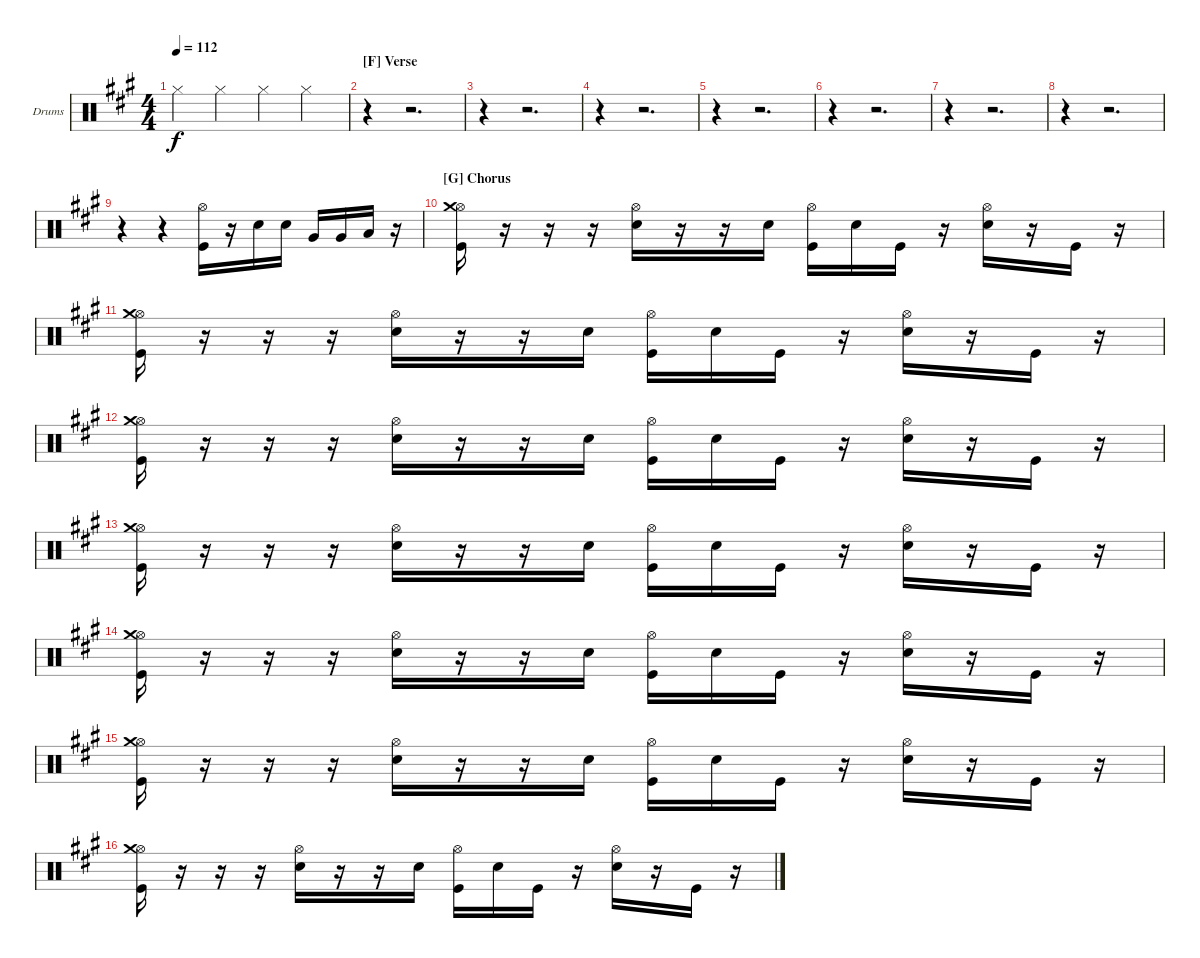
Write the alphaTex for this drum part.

\defaultSystemsLayout 4
\bracketExtendMode groupsimilarinstruments
\firstSystemTrackNameOrientation horizontal
\otherSystemsTrackNameOrientation horizontal
\track ("Drumkit" "Drums") {instrument percussion}
\staff {score}
\articulation defaults
\ts (4 4)
\tempo 112
\clef neutral
\scale
1.05801
\ks a "Hi-Hat (closed)".4{dy f} "Hi-Hat (closed)".4 "Hi-Hat (closed)".4 "Hi-Hat (closed)".4
|
\section ("F" "Verse")
\scale
0.941992 r.4 r.2{d} |
\scale
1.05801 r.4 r.2{d} |
\scale
0.941992 r.4 r.2{d} |
\scale
1.05801 r.4 r.2{d} |
\scale
0.941992 r.4 r.2{d} |
\scale
1.05801 r.4 r.2{d} |
\scale
0.941992 r.4 r.2{d} |
\scale
1.05801 r.4 r.4 ("Hi-Hat (open)" "Kick (hit)").16 r.16 "Snare (hit) 2".16 "Snare (hit) 2".16 "Very Low Tom (hit)".16 "Very Low Tom (hit)".16 "Low Tom (hit)".16 r.16 |
\section ("G" "Chorus")
\scale
0.941992 ("Hi-Hat (open)" "Kick (hit)" "Crash medium (hit)").16 r.16 r.16 r.16 ("Hi-Hat (open)" "Snare (hit) 2").16 r.16 r.16 "Snare (hit) 2".16 ("Hi-Hat (open)" "Kick (hit)").16 "Snare (hit) 2".16 "Kick (hit)".16 r.16 ("Hi-Hat (open)" "Snare (hit) 2").16 r.16 "Kick (hit)".16 r.16 |
\scale
1.05801 ("Hi-Hat (open)" "Kick (hit)" "Crash medium (hit)").16 r.16 r.16 r.16 ("Hi-Hat (open)" "Snare (hit) 2").16 r.16 r.16 "Snare (hit) 2".16 ("Hi-Hat (open)" "Kick (hit)").16 "Snare (hit) 2".16 "Kick (hit)".16 r.16 ("Hi-Hat (open)" "Snare (hit) 2").16 r.16 "Kick (hit)".16 r.16 |
\scale
0.941992 ("Hi-Hat (open)" "Kick (hit)" "Crash medium (hit)").16 r.16 r.16 r.16 ("Hi-Hat (open)" "Snare (hit) 2").16 r.16 r.16 "Snare (hit) 2".16 ("Hi-Hat (open)" "Kick (hit)").16 "Snare (hit) 2".16 "Kick (hit)".16 r.16 ("Hi-Hat (open)" "Snare (hit) 2").16 r.16 "Kick (hit)".16 r.16 |
\scale
1.05801 ("Hi-Hat (open)" "Kick (hit)" "Crash medium (hit)").16 r.16 r.16 r.16 ("Hi-Hat (open)" "Snare (hit) 2").16 r.16 r.16 "Snare (hit) 2".16 ("Hi-Hat (open)" "Kick (hit)").16 "Snare (hit) 2".16 "Kick (hit)".16 r.16 ("Hi-Hat (open)" "Snare (hit) 2").16 r.16 "Kick (hit)".16 r.16 |
\scale
0.941992 ("Hi-Hat (open)" "Kick (hit)" "Crash medium (hit)").16 r.16 r.16 r.16 ("Hi-Hat (open)" "Snare (hit) 2").16 r.16 r.16 "Snare (hit) 2".16 ("Hi-Hat (open)" "Kick (hit)").16 "Snare (hit) 2".16 "Kick (hit)".16 r.16 ("Hi-Hat (open)" "Snare (hit) 2").16 r.16 "Kick (hit)".16 r.16 |
\scale
1.05801 ("Hi-Hat (open)" "Kick (hit)" "Crash medium (hit)").16 r.16 r.16 r.16 ("Hi-Hat (open)" "Snare (hit) 2").16 r.16 r.16 "Snare (hit) 2".16 ("Hi-Hat (open)" "Kick (hit)").16 "Snare (hit) 2".16 "Kick (hit)".16 r.16 ("Hi-Hat (open)" "Snare (hit) 2").16 r.16 "Kick (hit)".16 r.16 |
\scale
0.941992 ("Hi-Hat (open)" "Kick (hit)" "Crash medium (hit)").16 r.16 r.16 r.16 ("Hi-Hat (open)" "Snare (hit) 2").16 r.16 r.16 "Snare (hit) 2".16 ("Hi-Hat (open)" "Kick (hit)").16 "Snare (hit) 2".16 "Kick (hit)".16 r.16 ("Hi-Hat (open)" "Snare (hit) 2").16 r.16 "Kick (hit)".16 r.16
